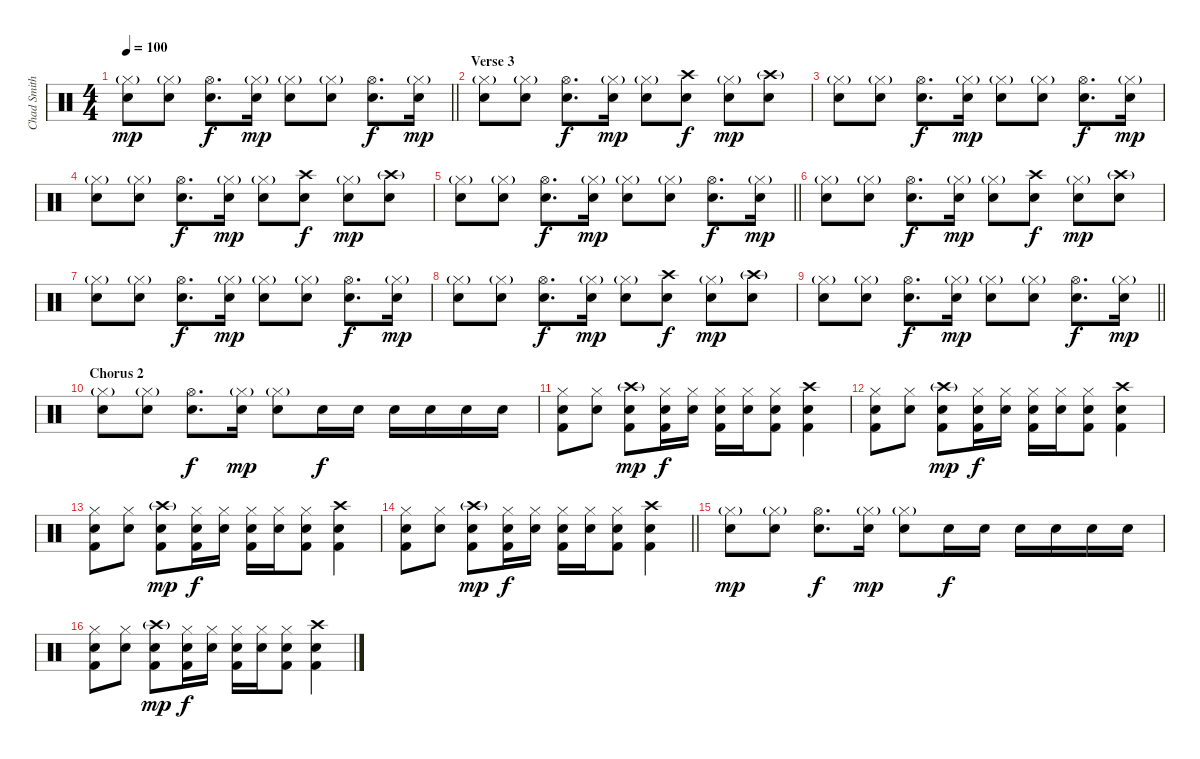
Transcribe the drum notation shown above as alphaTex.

\track ("Chad Smith - Drums" "Chad Smith") {instrument percussion}
\staff {score}
\articulation defaults
\ts (4 4)
\tempo 100
\clef neutral
\barLineRight lightlight
\ks c
("Hi-Hat (closed)"{g} "Snare (hit) 2").8{dy mp} ("Hi-Hat (closed)"{g} "Snare (hit) 2").8 ("Hi-Hat (open)" "Snare (hit) 2").8{d dy f} ("Hi-Hat (closed)"{g} "Snare (hit) 2").16{dy mp} ("Hi-Hat (closed)"{g} "Snare (hit) 2").8 ("Hi-Hat (closed)"{g} "Snare (hit) 2").8 ("Hi-Hat (open)" "Snare (hit) 2").8{d dy f} ("Hi-Hat (closed)"{g} "Snare (hit) 2").16{dy mp} |
\section ("" "Verse 3")
("Hi-Hat (closed)"{g} "Snare (hit) 2").8 ("Hi-Hat (closed)"{g} "Snare (hit) 2").8 ("Hi-Hat (open)" "Snare (hit) 2").8{d dy f} ("Hi-Hat (closed)"{g} "Snare (hit) 2").16{dy mp} ("Hi-Hat (closed)"{g} "Snare (hit) 2").8 ("Crash high (hit)" "Snare (hit) 2").8{dy f} ("Hi-Hat (closed)"{g} "Snare (hit) 2").8{dy mp} ("Crash high (hit)"{g} "Snare (hit) 2").8 |
("Hi-Hat (closed)"{g} "Snare (hit) 2").8 ("Hi-Hat (closed)"{g} "Snare (hit) 2").8 ("Hi-Hat (open)" "Snare (hit) 2").8{d dy f} ("Hi-Hat (closed)"{g} "Snare (hit) 2").16{dy mp} ("Hi-Hat (closed)"{g} "Snare (hit) 2").8 ("Hi-Hat (closed)"{g} "Snare (hit) 2").8 ("Hi-Hat (open)" "Snare (hit) 2").8{d dy f} ("Hi-Hat (closed)"{g} "Snare (hit) 2").16{dy mp} |
("Hi-Hat (closed)"{g} "Snare (hit) 2").8 ("Hi-Hat (closed)"{g} "Snare (hit) 2").8 ("Hi-Hat (open)" "Snare (hit) 2").8{d dy f} ("Hi-Hat (closed)"{g} "Snare (hit) 2").16{dy mp} ("Hi-Hat (closed)"{g} "Snare (hit) 2").8 ("Crash high (hit)" "Snare (hit) 2").8{dy f} ("Hi-Hat (closed)"{g} "Snare (hit) 2").8{dy mp} ("Crash high (hit)"{g} "Snare (hit) 2").8 |
\barLineRight lightlight
("Hi-Hat (closed)"{g} "Snare (hit) 2").8 ("Hi-Hat (closed)"{g} "Snare (hit) 2").8 ("Hi-Hat (open)" "Snare (hit) 2").8{d dy f} ("Hi-Hat (closed)"{g} "Snare (hit) 2").16{dy mp} ("Hi-Hat (closed)"{g} "Snare (hit) 2").8 ("Hi-Hat (closed)"{g} "Snare (hit) 2").8 ("Hi-Hat (open)" "Snare (hit) 2").8{d dy f} ("Hi-Hat (closed)"{g} "Snare (hit) 2").16{dy mp} |
("Hi-Hat (closed)"{g} "Snare (hit) 2").8 ("Hi-Hat (closed)"{g} "Snare (hit) 2").8 ("Hi-Hat (open)" "Snare (hit) 2").8{d dy f} ("Hi-Hat (closed)"{g} "Snare (hit) 2").16{dy mp} ("Hi-Hat (closed)"{g} "Snare (hit) 2").8 ("Crash high (hit)" "Snare (hit) 2").8{dy f} ("Hi-Hat (closed)"{g} "Snare (hit) 2").8{dy mp} ("Crash high (hit)"{g} "Snare (hit) 2").8 |
("Hi-Hat (closed)"{g} "Snare (hit) 2").8 ("Hi-Hat (closed)"{g} "Snare (hit) 2").8 ("Hi-Hat (open)" "Snare (hit) 2").8{d dy f} ("Hi-Hat (closed)"{g} "Snare (hit) 2").16{dy mp} ("Hi-Hat (closed)"{g} "Snare (hit) 2").8 ("Hi-Hat (closed)"{g} "Snare (hit) 2").8 ("Hi-Hat (open)" "Snare (hit) 2").8{d dy f} ("Hi-Hat (closed)"{g} "Snare (hit) 2").16{dy mp} |
("Hi-Hat (closed)"{g} "Snare (hit) 2").8 ("Hi-Hat (closed)"{g} "Snare (hit) 2").8 ("Hi-Hat (open)" "Snare (hit) 2").8{d dy f} ("Hi-Hat (closed)"{g} "Snare (hit) 2").16{dy mp} ("Hi-Hat (closed)"{g} "Snare (hit) 2").8 ("Crash high (hit)" "Snare (hit) 2").8{dy f} ("Hi-Hat (closed)"{g} "Snare (hit) 2").8{dy mp} ("Crash high (hit)"{g} "Snare (hit) 2").8 |
\barLineRight lightlight
("Hi-Hat (closed)"{g} "Snare (hit) 2").8 ("Hi-Hat (closed)"{g} "Snare (hit) 2").8 ("Hi-Hat (open)" "Snare (hit) 2").8{d dy f} ("Hi-Hat (closed)"{g} "Snare (hit) 2").16{dy mp} ("Hi-Hat (closed)"{g} "Snare (hit) 2").8 ("Hi-Hat (closed)"{g} "Snare (hit) 2").8 ("Hi-Hat (open)" "Snare (hit) 2").8{d dy f} ("Hi-Hat (closed)"{g} "Snare (hit) 2").16{dy mp} |
\section ("" "Chorus 2")
("Hi-Hat (closed)"{g} "Snare (hit) 2").8 ("Hi-Hat (closed)"{g} "Snare (hit) 2").8 ("Hi-Hat (open)" "Snare (hit) 2").8{d dy f} ("Hi-Hat (closed)"{g} "Snare (hit) 2").16{dy mp} ("Hi-Hat (closed)"{g} "Snare (hit) 2").8 "Electric Snare (hit)".16{dy f} "Electric Snare (hit)".16 "Electric Snare (hit)".16 "Electric Snare (hit)".16 "Electric Snare (hit)".16 "Electric Snare (hit)".16 |
("Hi-Hat (closed)" "Electric Snare (hit)" "Kick (hit) 2").8 ("Hi-Hat (closed)" "Electric Snare (hit)").8 ("Crash high (hit)"{g} "Electric Snare (hit)" "Kick (hit) 2").8{dy mp} ("Hi-Hat (closed)" "Electric Snare (hit)" "Kick (hit) 2").16{dy f} ("Hi-Hat (closed)" "Electric Snare (hit)").16 ("Hi-Hat (closed)" "Electric Snare (hit)" "Kick (hit) 2").16 ("Hi-Hat (closed)" "Electric Snare (hit)").16 ("Hi-Hat (closed)" "Electric Snare (hit)" "Kick (hit) 2").8 ("Crash high (hit)" "Electric Snare (hit)" "Kick (hit) 2").4 |
("Hi-Hat (closed)" "Electric Snare (hit)" "Kick (hit) 2").8 ("Hi-Hat (closed)" "Electric Snare (hit)").8 ("Crash high (hit)"{g} "Electric Snare (hit)" "Kick (hit) 2").8{dy mp} ("Hi-Hat (closed)" "Electric Snare (hit)" "Kick (hit) 2").16{dy f} ("Hi-Hat (closed)" "Electric Snare (hit)").16 ("Hi-Hat (closed)" "Electric Snare (hit)" "Kick (hit) 2").16 ("Hi-Hat (closed)" "Electric Snare (hit)").16 ("Hi-Hat (closed)" "Electric Snare (hit)" "Kick (hit) 2").8 ("Crash high (hit)" "Electric Snare (hit)" "Kick (hit) 2").4 |
("Hi-Hat (closed)" "Electric Snare (hit)" "Kick (hit) 2").8 ("Hi-Hat (closed)" "Electric Snare (hit)").8 ("Crash high (hit)"{g} "Electric Snare (hit)" "Kick (hit) 2").8{dy mp} ("Hi-Hat (closed)" "Electric Snare (hit)" "Kick (hit) 2").16{dy f} ("Hi-Hat (closed)" "Electric Snare (hit)").16 ("Hi-Hat (closed)" "Electric Snare (hit)" "Kick (hit) 2").16 ("Hi-Hat (closed)" "Electric Snare (hit)").16 ("Hi-Hat (closed)" "Electric Snare (hit)" "Kick (hit) 2").8 ("Crash high (hit)" "Electric Snare (hit)" "Kick (hit) 2").4 |
\barLineRight lightlight
("Hi-Hat (closed)" "Electric Snare (hit)" "Kick (hit) 2").8 ("Hi-Hat (closed)" "Electric Snare (hit)").8 ("Crash high (hit)"{g} "Electric Snare (hit)" "Kick (hit) 2").8{dy mp} ("Hi-Hat (closed)" "Electric Snare (hit)" "Kick (hit) 2").16{dy f} ("Hi-Hat (closed)" "Electric Snare (hit)").16 ("Hi-Hat (closed)" "Electric Snare (hit)" "Kick (hit) 2").16 ("Hi-Hat (closed)" "Electric Snare (hit)").16 ("Hi-Hat (closed)" "Electric Snare (hit)" "Kick (hit) 2").8 ("Crash high (hit)" "Electric Snare (hit)" "Kick (hit) 2").4 |
("Hi-Hat (closed)"{g} "Snare (hit) 2").8{dy mp} ("Hi-Hat (closed)"{g} "Snare (hit) 2").8 ("Hi-Hat (open)" "Snare (hit) 2").8{d dy f} ("Hi-Hat (closed)"{g} "Snare (hit) 2").16{dy mp} ("Hi-Hat (closed)"{g} "Snare (hit) 2").8 "Electric Snare (hit)".16{dy f} "Electric Snare (hit)".16 "Electric Snare (hit)".16 "Electric Snare (hit)".16 "Electric Snare (hit)".16 "Electric Snare (hit)".16 |
("Hi-Hat (closed)" "Electric Snare (hit)" "Kick (hit) 2").8 ("Hi-Hat (closed)" "Electric Snare (hit)").8 ("Crash high (hit)"{g} "Electric Snare (hit)" "Kick (hit) 2").8{dy mp} ("Hi-Hat (closed)" "Electric Snare (hit)" "Kick (hit) 2").16{dy f} ("Hi-Hat (closed)" "Electric Snare (hit)").16 ("Hi-Hat (closed)" "Electric Snare (hit)" "Kick (hit) 2").16 ("Hi-Hat (closed)" "Electric Snare (hit)").16 ("Hi-Hat (closed)" "Electric Snare (hit)" "Kick (hit) 2").8 ("Crash high (hit)" "Electric Snare (hit)" "Kick (hit) 2").4
